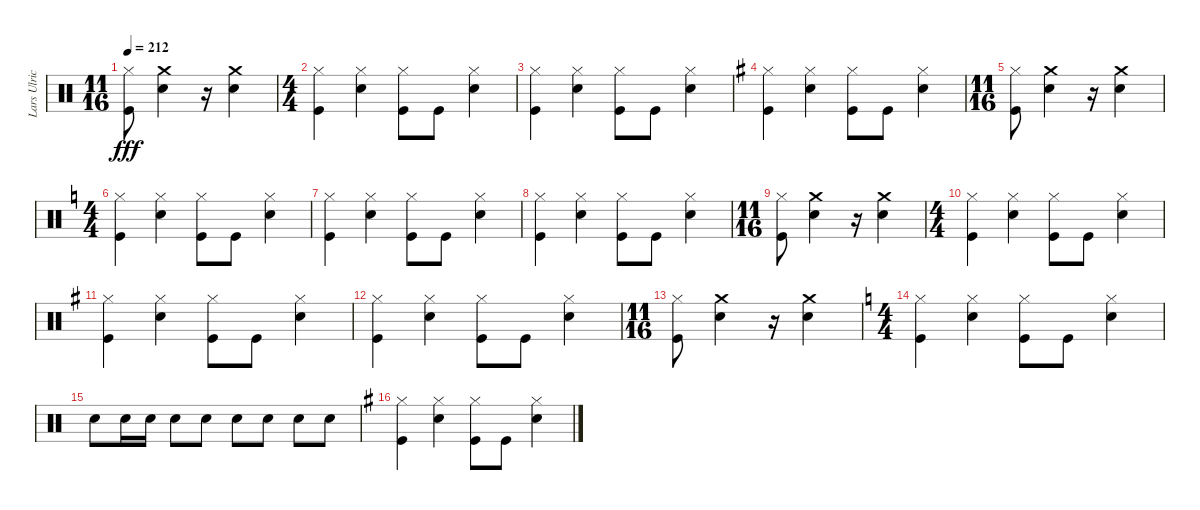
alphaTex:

\track ("Lars Ulrich" "Lars Ulric") {instrument percussion}
\staff {score}
\articulation defaults
\ts (11 16)
\tempo 212
\clef neutral
\ks c
("Hi-Hat (closed)" "Kick (hit)").8{dy fff} ("Snare (hit) 2" "Crash medium (hit)").4 r.16 ("Crash medium (hit)" "Snare (hit) 2").4 |
\ts (4 4)
("Hi-Hat (closed)" "Kick (hit)").4 ("Snare (hit) 2" "Hi-Hat (closed)").4 ("Kick (hit)" "Hi-Hat (closed)").8 "Kick (hit)".8 ("Snare (hit) 2" "Hi-Hat (closed)").4 |
("Kick (hit)" "Hi-Hat (closed)").4 ("Snare (hit) 2" "Hi-Hat (closed)").4 ("Hi-Hat (closed)" "Kick (hit)").8 "Kick (hit)".8 ("Snare (hit) 2" "Hi-Hat (closed)").4 |
\ks g
("Hi-Hat (closed)" "Kick (hit)").4 ("Snare (hit) 2" "Hi-Hat (closed)").4 ("Kick (hit)" "Hi-Hat (closed)").8 "Kick (hit)".8 ("Hi-Hat (closed)" "Snare (hit) 2").4 |
\ts (11 16)
("Hi-Hat (closed)" "Kick (hit)").8 ("Snare (hit) 2" "Crash medium (hit)").4 r.16 ("Snare (hit) 2" "Crash medium (hit)").4 |
\ts (4 4)
\ks c
("Hi-Hat (closed)" "Kick (hit)").4 ("Snare (hit) 2" "Hi-Hat (closed)").4 ("Kick (hit)" "Hi-Hat (closed)").8 "Kick (hit)".8 ("Snare (hit) 2" "Hi-Hat (closed)").4 |
("Hi-Hat (closed)" "Kick (hit)").4 ("Snare (hit) 2" "Hi-Hat (closed)").4 ("Kick (hit)" "Hi-Hat (closed)").8 "Kick (hit)".8 ("Snare (hit) 2" "Hi-Hat (closed)").4 |
("Kick (hit)" "Hi-Hat (closed)").4 ("Snare (hit) 2" "Hi-Hat (closed)").4 ("Kick (hit)" "Hi-Hat (closed)").8 "Kick (hit)".8 ("Snare (hit) 2" "Hi-Hat (closed)").4 |
\ts (11 16)
("Hi-Hat (closed)" "Kick (hit)").8 ("Snare (hit) 2" "Crash medium (hit)").4 r.16 ("Crash medium (hit)" "Snare (hit) 2").4 |
\ts (4 4)
("Kick (hit)" "Hi-Hat (closed)").4 ("Snare (hit) 2" "Hi-Hat (closed)").4 ("Kick (hit)" "Hi-Hat (closed)").8 "Kick (hit)".8 ("Snare (hit) 2" "Hi-Hat (closed)").4 |
\ks g
("Hi-Hat (closed)" "Kick (hit)").4 ("Snare (hit) 2" "Hi-Hat (closed)").4 ("Hi-Hat (closed)" "Kick (hit)").8 "Kick (hit)".8 ("Snare (hit) 2" "Hi-Hat (closed)").4 |
("Hi-Hat (closed)" "Kick (hit)").4 ("Snare (hit) 2" "Hi-Hat (closed)").4 ("Kick (hit)" "Hi-Hat (closed)").8 "Kick (hit)".8 ("Hi-Hat (closed)" "Snare (hit) 2").4 |
\ts (11 16)
("Hi-Hat (closed)" "Kick (hit)").8 ("Snare (hit) 2" "Crash medium (hit)").4 r.16 ("Snare (hit) 2" "Crash medium (hit)").4 |
\ts (4 4)
\ks c
("Hi-Hat (closed)" "Kick (hit)").4 ("Snare (hit) 2" "Hi-Hat (closed)").4 ("Kick (hit)" "Hi-Hat (closed)").8 "Kick (hit)".8 ("Snare (hit) 2" "Hi-Hat (closed)").4 |
"Snare (hit) 2".8 "Snare (hit) 2".16 "Snare (hit) 2".16 "Snare (hit) 2".8 "Snare (hit) 2".8 "Snare (hit) 2".8 "Snare (hit) 2".8 "Snare (hit) 2".8 "Snare (hit) 2".8 |
\ks g
("Kick (hit)" "Hi-Hat (closed)").4 ("Hi-Hat (closed)" "Snare (hit) 2").4 ("Kick (hit)" "Hi-Hat (closed)").8 "Kick (hit)".8 ("Snare (hit) 2" "Hi-Hat (closed)").4
